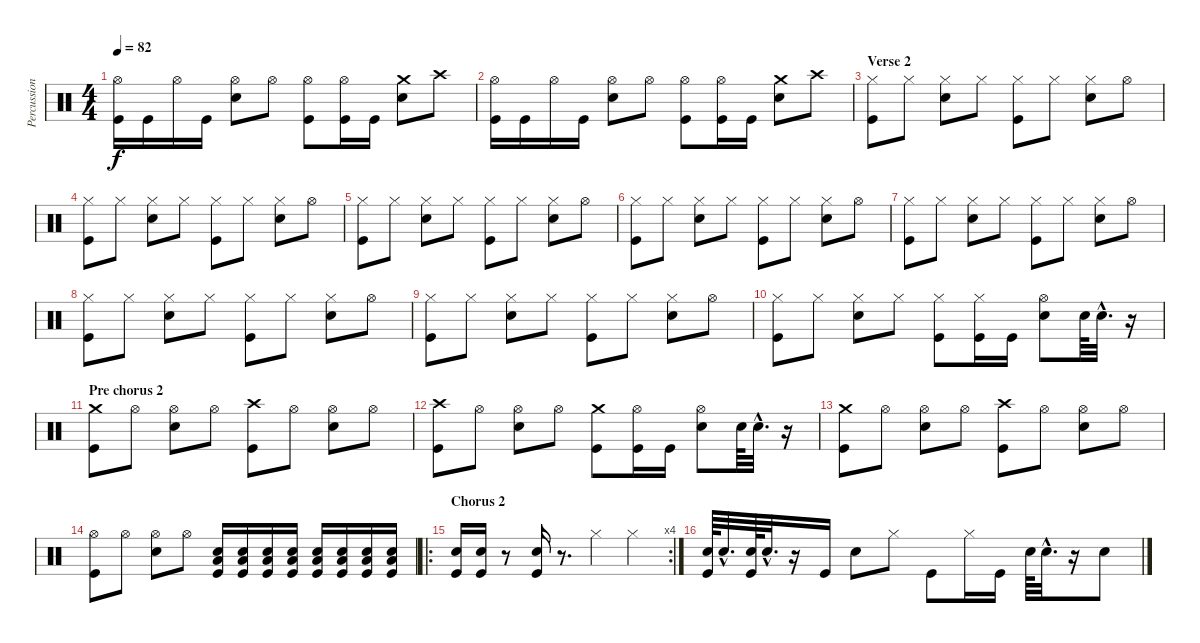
\track ("Percussion" "Percussion") {instrument percussion}
\staff {score}
\articulation defaults
\ts (4 4)
\tempo 82
\clef neutral
\ks c
("Hi-Hat (open)" "Kick (hit)").16{dy f} "Kick (hit)".16 "Hi-Hat (open)".16 "Kick (hit)".16 ("Hi-Hat (open)" "Snare (hit) 2").8 "Hi-Hat (open)".8 ("Hi-Hat (open)" "Kick (hit)").8 ("Hi-Hat (open)" "Kick (hit)").16 "Kick (hit)".16 ("Crash medium (hit)" "Snare (hit) 2").8 "Crash high (hit)".8 |
("Hi-Hat (open)" "Kick (hit)").16 "Kick (hit)".16 "Hi-Hat (open)".16 "Kick (hit)".16 ("Hi-Hat (open)" "Snare (hit) 2").8 "Hi-Hat (open)".8 ("Hi-Hat (open)" "Kick (hit)").8 ("Hi-Hat (open)" "Kick (hit)").16 "Kick (hit)".16 ("Crash medium (hit)" "Snare (hit) 2").8 "Crash high (hit)".8 |
\section ("" "Verse 2")
("Hi-Hat (closed)" "Kick (hit)").8 "Hi-Hat (closed)".8 ("Hi-Hat (closed)" "Snare (hit) 2").8 "Hi-Hat (closed)".8 ("Hi-Hat (closed)" "Kick (hit)").8 "Hi-Hat (closed)".8 ("Hi-Hat (closed)" "Snare (hit) 2").8 "Hi-Hat (open)".8 |
("Hi-Hat (closed)" "Kick (hit)").8 "Hi-Hat (closed)".8 ("Hi-Hat (closed)" "Snare (hit) 2").8 "Hi-Hat (closed)".8 ("Hi-Hat (closed)" "Kick (hit)").8 "Hi-Hat (closed)".8 ("Hi-Hat (closed)" "Snare (hit) 2").8 "Hi-Hat (open)".8 |
("Hi-Hat (closed)" "Kick (hit)").8 "Hi-Hat (closed)".8 ("Hi-Hat (closed)" "Snare (hit) 2").8 "Hi-Hat (closed)".8 ("Hi-Hat (closed)" "Kick (hit)").8 "Hi-Hat (closed)".8 ("Hi-Hat (closed)" "Snare (hit) 2").8 "Hi-Hat (open)".8 |
("Hi-Hat (closed)" "Kick (hit)").8 "Hi-Hat (closed)".8 ("Hi-Hat (closed)" "Snare (hit) 2").8 "Hi-Hat (closed)".8 ("Hi-Hat (closed)" "Kick (hit)").8 "Hi-Hat (closed)".8 ("Hi-Hat (closed)" "Snare (hit) 2").8 "Hi-Hat (open)".8 |
("Hi-Hat (closed)" "Kick (hit)").8 "Hi-Hat (closed)".8 ("Hi-Hat (closed)" "Snare (hit) 2").8 "Hi-Hat (closed)".8 ("Hi-Hat (closed)" "Kick (hit)").8 "Hi-Hat (closed)".8 ("Hi-Hat (closed)" "Snare (hit) 2").8 "Hi-Hat (open)".8 |
("Hi-Hat (closed)" "Kick (hit)").8 "Hi-Hat (closed)".8 ("Hi-Hat (closed)" "Snare (hit) 2").8 "Hi-Hat (closed)".8 ("Hi-Hat (closed)" "Kick (hit)").8 "Hi-Hat (closed)".8 ("Hi-Hat (closed)" "Snare (hit) 2").8 "Hi-Hat (open)".8 |
("Hi-Hat (closed)" "Kick (hit)").8 "Hi-Hat (closed)".8 ("Hi-Hat (closed)" "Snare (hit) 2").8 "Hi-Hat (closed)".8 ("Hi-Hat (closed)" "Kick (hit)").8 "Hi-Hat (closed)".8 ("Hi-Hat (closed)" "Snare (hit) 2").8 "Hi-Hat (open)".8 |
("Hi-Hat (closed)" "Kick (hit)").8 "Hi-Hat (closed)".8 ("Hi-Hat (closed)" "Snare (hit) 2").8 "Hi-Hat (closed)".8 ("Hi-Hat (closed)" "Kick (hit)").8 ("Hi-Hat (closed)" "Kick (hit)").16 "Kick (hit)".16 ("Hi-Hat (open)" "Snare (hit) 2").8 "Snare (hit) 2".64 "Snare (hit) 2"{hac}.32{d} r.16 |
\section ("" "Pre chorus 2")
("Crash medium (hit)" "Kick (hit)").8 "Hi-Hat (open)".8 ("Hi-Hat (open)" "Snare (hit) 2").8 "Hi-Hat (open)".8 ("Crash high (hit)" "Kick (hit)").8 "Hi-Hat (open)".8 ("Hi-Hat (open)" "Snare (hit) 2").8 "Hi-Hat (open)".8 |
("Crash high (hit)" "Kick (hit)").8 "Hi-Hat (open)".8 ("Hi-Hat (open)" "Snare (hit) 2").8 "Hi-Hat (open)".8 ("Crash medium (hit)" "Kick (hit)").8 ("Hi-Hat (open)" "Kick (hit)").16 "Kick (hit)".16 ("Hi-Hat (open)" "Snare (hit) 2").8 "Snare (hit) 2".64 "Snare (hit) 2"{hac}.32{d} r.16 |
("Crash medium (hit)" "Kick (hit)").8 "Hi-Hat (open)".8 ("Hi-Hat (open)" "Snare (hit) 2").8 "Hi-Hat (open)".8 ("Crash high (hit)" "Kick (hit)").8 "Hi-Hat (open)".8 ("Hi-Hat (open)" "Snare (hit) 2").8 "Hi-Hat (open)".8 |
("Hi-Hat (open)" "Kick (hit)").8 "Hi-Hat (open)".8 ("Hi-Hat (open)" "Snare (hit) 2").8 "Hi-Hat (open)".8 ("Snare (hit) 2" "Low Floor Tom (hit)" "Kick (hit)").16 ("Snare (hit) 2" "Low Floor Tom (hit)" "Kick (hit)").16 ("Snare (hit) 2" "Low Floor Tom (hit)" "Kick (hit)").16 ("Snare (hit) 2" "Low Floor Tom (hit)" "Kick (hit)").16 ("Snare (hit) 2" "Low Floor Tom (hit)" "Kick (hit)").16 ("Snare (hit) 2" "Low Floor Tom (hit)" "Kick (hit)").16 ("Snare (hit) 2" "Low Floor Tom (hit)" "Kick (hit)").16 ("Snare (hit) 2" "Low Floor Tom (hit)" "Kick (hit)").16 |
\ro
\rc 4
\section ("" "Chorus 2")
("Snare (hit) 2" "Kick (hit)").16 ("Snare (hit) 2" "Kick (hit)").16 r.8 ("Snare (hit) 2" "Kick (hit)").16 r.8{d} "Hi-Hat (closed)".4 "Hi-Hat (closed)".4 |
("Snare (hit) 2" "Kick (hit)").64 "Snare (hit) 2"{hac}.32{d} ("Snare (hit) 2" "Kick (hit)").64 "Snare (hit) 2"{hac}.32{d} r.16 "Kick (hit)".16 "Snare (hit) 2".8 "Hi-Hat (closed)".8 "Kick (hit)".8 "Hi-Hat (closed)".16 "Kick (hit)".16 "Snare (hit) 2".64 "Snare (hit) 2"{hac}.32{d} r.16 "Snare (hit) 2".8
